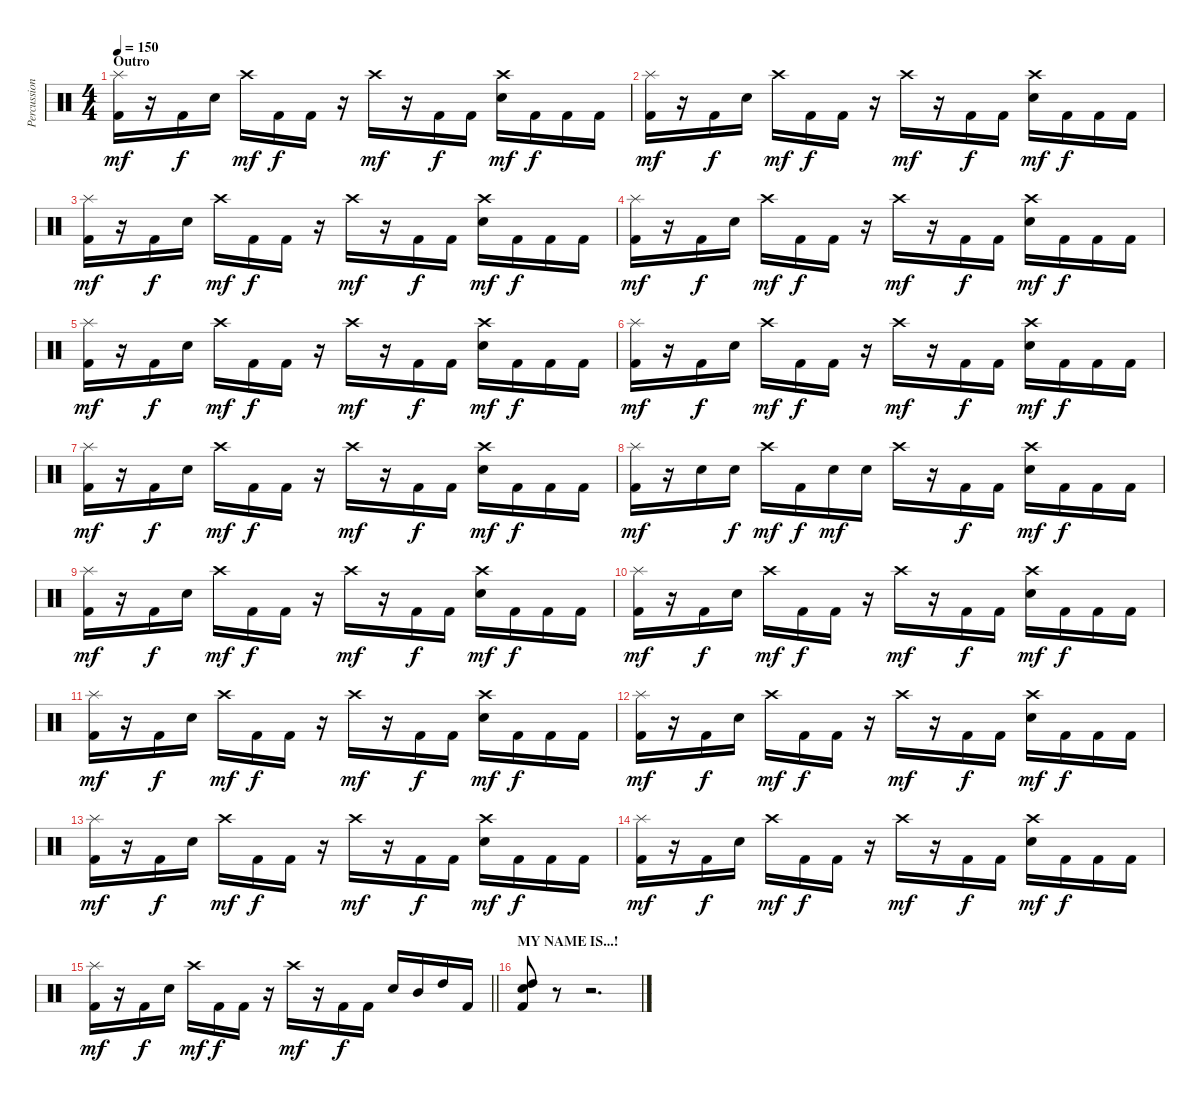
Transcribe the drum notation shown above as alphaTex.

\track ("Percussion" "Percussion") {instrument percussion}
\staff {score}
\articulation defaults
\ts (4 4)
\section ("" "Outro")
\tempo 150
\clef neutral
\ks c
("Splash (hit)" "Kick (hit) 2").16{dy mf} r.16 "Kick (hit) 2".16{dy f} "Snare (hit) 2".16 "Crash high (hit)".16{dy mf} "Kick (hit) 2".16{dy f} "Kick (hit) 2".16 r.16 "Crash high (hit)".16{dy mf} r.16 "Kick (hit) 2".16{dy f} "Kick (hit) 2".16 ("Crash high (hit)" "Snare (hit) 2").16{dy mf} "Kick (hit) 2".16{dy f} "Kick (hit) 2".16 "Kick (hit) 2".16 |
("Splash (hit)" "Kick (hit) 2").16{dy mf} r.16 "Kick (hit) 2".16{dy f} "Snare (hit) 2".16 "Crash high (hit)".16{dy mf} "Kick (hit) 2".16{dy f} "Kick (hit) 2".16 r.16 "Crash high (hit)".16{dy mf} r.16 "Kick (hit) 2".16{dy f} "Kick (hit) 2".16 ("Crash high (hit)" "Snare (hit) 2").16{dy mf} "Kick (hit) 2".16{dy f} "Kick (hit) 2".16 "Kick (hit) 2".16 |
("Splash (hit)" "Kick (hit) 2").16{dy mf} r.16 "Kick (hit) 2".16{dy f} "Snare (hit) 2".16 "Crash high (hit)".16{dy mf} "Kick (hit) 2".16{dy f} "Kick (hit) 2".16 r.16 "Crash high (hit)".16{dy mf} r.16 "Kick (hit) 2".16{dy f} "Kick (hit) 2".16 ("Crash high (hit)" "Snare (hit) 2").16{dy mf} "Kick (hit) 2".16{dy f} "Kick (hit) 2".16 "Kick (hit) 2".16 |
("Splash (hit)" "Kick (hit) 2").16{dy mf} r.16 "Kick (hit) 2".16{dy f} "Snare (hit) 2".16 "Crash high (hit)".16{dy mf} "Kick (hit) 2".16{dy f} "Kick (hit) 2".16 r.16 "Crash high (hit)".16{dy mf} r.16 "Kick (hit) 2".16{dy f} "Kick (hit) 2".16 ("Crash high (hit)" "Snare (hit) 2").16{dy mf} "Kick (hit) 2".16{dy f} "Kick (hit) 2".16 "Kick (hit) 2".16 |
("Splash (hit)" "Kick (hit) 2").16{dy mf} r.16 "Kick (hit) 2".16{dy f} "Snare (hit) 2".16 "Crash high (hit)".16{dy mf} "Kick (hit) 2".16{dy f} "Kick (hit) 2".16 r.16 "Crash high (hit)".16{dy mf} r.16 "Kick (hit) 2".16{dy f} "Kick (hit) 2".16 ("Crash high (hit)" "Snare (hit) 2").16{dy mf} "Kick (hit) 2".16{dy f} "Kick (hit) 2".16 "Kick (hit) 2".16 |
("Splash (hit)" "Kick (hit) 2").16{dy mf} r.16 "Kick (hit) 2".16{dy f} "Snare (hit) 2".16 "Crash high (hit)".16{dy mf} "Kick (hit) 2".16{dy f} "Kick (hit) 2".16 r.16 "Crash high (hit)".16{dy mf} r.16 "Kick (hit) 2".16{dy f} "Kick (hit) 2".16 ("Crash high (hit)" "Snare (hit) 2").16{dy mf} "Kick (hit) 2".16{dy f} "Kick (hit) 2".16 "Kick (hit) 2".16 |
("Splash (hit)" "Kick (hit) 2").16{dy mf} r.16 "Kick (hit) 2".16{dy f} "Snare (hit) 2".16 "Crash high (hit)".16{dy mf} "Kick (hit) 2".16{dy f} "Kick (hit) 2".16 r.16 "Crash high (hit)".16{dy mf} r.16 "Kick (hit) 2".16{dy f} "Kick (hit) 2".16 ("Crash high (hit)" "Snare (hit) 2").16{dy mf} "Kick (hit) 2".16{dy f} "Kick (hit) 2".16 "Kick (hit) 2".16 |
("Splash (hit)" "Kick (hit) 2").16{dy mf} r.16 "Snare (hit) 2".16 "Snare (hit) 2".16{dy f} "Crash high (hit)".16{dy mf} "Kick (hit) 2".16{dy f} "Snare (hit) 2".16{dy mf} "Snare (hit) 2".16 "Crash high (hit)".16 r.16 "Kick (hit) 2".16{dy f} "Kick (hit) 2".16 ("Crash high (hit)" "Snare (hit) 2").16{dy mf} "Kick (hit) 2".16{dy f} "Kick (hit) 2".16 "Kick (hit) 2".16 |
("Splash (hit)" "Kick (hit) 2").16{dy mf} r.16 "Kick (hit) 2".16{dy f} "Snare (hit) 2".16 "Crash high (hit)".16{dy mf} "Kick (hit) 2".16{dy f} "Kick (hit) 2".16 r.16 "Crash high (hit)".16{dy mf} r.16 "Kick (hit) 2".16{dy f} "Kick (hit) 2".16 ("Crash high (hit)" "Snare (hit) 2").16{dy mf} "Kick (hit) 2".16{dy f} "Kick (hit) 2".16 "Kick (hit) 2".16 |
("Splash (hit)" "Kick (hit) 2").16{dy mf} r.16 "Kick (hit) 2".16{dy f} "Snare (hit) 2".16 "Crash high (hit)".16{dy mf} "Kick (hit) 2".16{dy f} "Kick (hit) 2".16 r.16 "Crash high (hit)".16{dy mf} r.16 "Kick (hit) 2".16{dy f} "Kick (hit) 2".16 ("Crash high (hit)" "Snare (hit) 2").16{dy mf} "Kick (hit) 2".16{dy f} "Kick (hit) 2".16 "Kick (hit) 2".16 |
("Splash (hit)" "Kick (hit) 2").16{dy mf} r.16 "Kick (hit) 2".16{dy f} "Snare (hit) 2".16 "Crash high (hit)".16{dy mf} "Kick (hit) 2".16{dy f} "Kick (hit) 2".16 r.16 "Crash high (hit)".16{dy mf} r.16 "Kick (hit) 2".16{dy f} "Kick (hit) 2".16 ("Crash high (hit)" "Snare (hit) 2").16{dy mf} "Kick (hit) 2".16{dy f} "Kick (hit) 2".16 "Kick (hit) 2".16 |
("Splash (hit)" "Kick (hit) 2").16{dy mf} r.16 "Kick (hit) 2".16{dy f} "Snare (hit) 2".16 "Crash high (hit)".16{dy mf} "Kick (hit) 2".16{dy f} "Kick (hit) 2".16 r.16 "Crash high (hit)".16{dy mf} r.16 "Kick (hit) 2".16{dy f} "Kick (hit) 2".16 ("Crash high (hit)" "Snare (hit) 2").16{dy mf} "Kick (hit) 2".16{dy f} "Kick (hit) 2".16 "Kick (hit) 2".16 |
("Splash (hit)" "Kick (hit) 2").16{dy mf} r.16 "Kick (hit) 2".16{dy f} "Snare (hit) 2".16 "Crash high (hit)".16{dy mf} "Kick (hit) 2".16{dy f} "Kick (hit) 2".16 r.16 "Crash high (hit)".16{dy mf} r.16 "Kick (hit) 2".16{dy f} "Kick (hit) 2".16 ("Crash high (hit)" "Snare (hit) 2").16{dy mf} "Kick (hit) 2".16{dy f} "Kick (hit) 2".16 "Kick (hit) 2".16 |
("Splash (hit)" "Kick (hit) 2").16{dy mf} r.16 "Kick (hit) 2".16{dy f} "Snare (hit) 2".16 "Crash high (hit)".16{dy mf} "Kick (hit) 2".16{dy f} "Kick (hit) 2".16 r.16 "Crash high (hit)".16{dy mf} r.16 "Kick (hit) 2".16{dy f} "Kick (hit) 2".16 ("Crash high (hit)" "Snare (hit) 2").16{dy mf} "Kick (hit) 2".16{dy f} "Kick (hit) 2".16 "Kick (hit) 2".16 |
\barLineRight lightlight
("Splash (hit)" "Kick (hit) 2").16{dy mf} r.16 "Kick (hit) 2".16{dy f} "Snare (hit) 2".16 "Crash high (hit)".16{dy mf} "Kick (hit) 2".16{dy f} "Kick (hit) 2".16 r.16 "Crash high (hit)".16{dy mf} r.16 "Kick (hit) 2".16{dy f} "Kick (hit) 2".16 "Snare (hit) 2".16 "Mid Tom (hit)".16 "High Tom (hit)".16 "Kick (hit) 2".16 |
\section ("" "MY NAME IS...!")
("Snare (hit) 2" "High Tom (hit)" "Kick (hit) 2").8 r.8 r.2{d}
